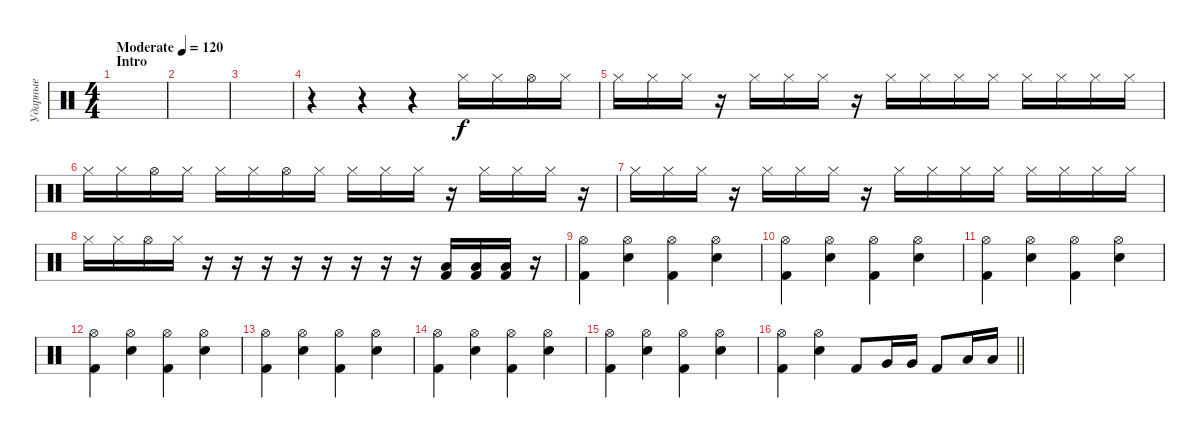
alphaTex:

\track ("Ударные" "Ударные") {instrument percussion}
\staff {score}
\articulation defaults
\ts (4 4)
\section ("" "Intro")
\tempo (120 "Moderate")
\clef neutral
\ks c
|
|
|
r.4 r.4 r.4 "Hi-Hat (closed)".16 "Hi-Hat (closed)".16 "Hi-Hat (open)".16 "Hi-Hat (closed)".16 |
"Hi-Hat (closed)".16 "Hi-Hat (closed)".16 "Hi-Hat (closed)".16 r.16 "Hi-Hat (closed)".16 "Hi-Hat (closed)".16 "Hi-Hat (closed)".16 r.16 "Hi-Hat (closed)".16 "Hi-Hat (closed)".16 "Hi-Hat (closed)".16 "Hi-Hat (closed)".16 "Hi-Hat (closed)".16 "Hi-Hat (closed)".16 "Hi-Hat (closed)".16 "Hi-Hat (closed)".16 |
"Hi-Hat (closed)".16 "Hi-Hat (closed)".16 "Hi-Hat (open)".16 "Hi-Hat (closed)".16 "Hi-Hat (closed)".16 "Hi-Hat (closed)".16 "Hi-Hat (open)".16 "Hi-Hat (closed)".16 "Hi-Hat (closed)".16 "Hi-Hat (closed)".16 "Hi-Hat (closed)".16 r.16 "Hi-Hat (closed)".16 "Hi-Hat (closed)".16 "Hi-Hat (closed)".16 r.16 |
"Hi-Hat (closed)".16 "Hi-Hat (closed)".16 "Hi-Hat (closed)".16 r.16 "Hi-Hat (closed)".16 "Hi-Hat (closed)".16 "Hi-Hat (closed)".16 r.16 "Hi-Hat (closed)".16 "Hi-Hat (closed)".16 "Hi-Hat (closed)".16 "Hi-Hat (closed)".16 "Hi-Hat (closed)".16 "Hi-Hat (closed)".16 "Hi-Hat (closed)".16 "Hi-Hat (closed)".16 |
"Hi-Hat (closed)".16 "Hi-Hat (closed)".16 "Hi-Hat (open)".16 "Hi-Hat (closed)".16 r.16 r.16 r.16 r.16 r.16 r.16 r.16 r.16 ("Low Tom (hit)" "Kick (hit) 2").16 ("Low Floor Tom (hit)" "Kick (hit) 2").16 ("Low Floor Tom (hit)" "Kick (hit) 2").16 r.16 |
("Hi-Hat (open)" "Kick (hit) 2").4 ("Hi-Hat (open)" "Snare (hit) 2").4 ("Hi-Hat (open)" "Kick (hit) 2").4 ("Hi-Hat (open)" "Snare (hit) 2").4 |
("Hi-Hat (open)" "Kick (hit) 2").4 ("Hi-Hat (open)" "Snare (hit) 2").4 ("Hi-Hat (open)" "Kick (hit) 2").4 ("Hi-Hat (open)" "Snare (hit) 2").4 |
("Hi-Hat (open)" "Kick (hit) 2").4 ("Hi-Hat (open)" "Snare (hit) 2").4 ("Hi-Hat (open)" "Kick (hit) 2").4 ("Hi-Hat (open)" "Snare (hit) 2").4 |
("Hi-Hat (open)" "Kick (hit) 2").4 ("Hi-Hat (open)" "Snare (hit) 2").4 ("Hi-Hat (open)" "Kick (hit) 2").4 ("Hi-Hat (open)" "Snare (hit) 2").4 |
("Hi-Hat (open)" "Kick (hit) 2").4 ("Hi-Hat (open)" "Snare (hit) 2").4 ("Hi-Hat (open)" "Kick (hit) 2").4 ("Hi-Hat (open)" "Snare (hit) 2").4 |
("Hi-Hat (open)" "Kick (hit) 2").4 ("Hi-Hat (open)" "Snare (hit) 2").4 ("Hi-Hat (open)" "Kick (hit) 2").4 ("Hi-Hat (open)" "Snare (hit) 2").4 |
("Hi-Hat (open)" "Kick (hit) 2").4 ("Hi-Hat (open)" "Snare (hit) 2").4 ("Hi-Hat (open)" "Kick (hit) 2").4 ("Hi-Hat (open)" "Snare (hit) 2").4 |
\barLineRight lightlight
("Hi-Hat (open)" "Kick (hit) 2").4 ("Hi-Hat (open)" "Snare (hit) 2").4 "Kick (hit) 2".8 "Very Low Tom (hit)".16 "Very Low Tom (hit)".16 "Kick (hit) 2".8 "Low Floor Tom (hit)".16 "Low Floor Tom (hit)".16
